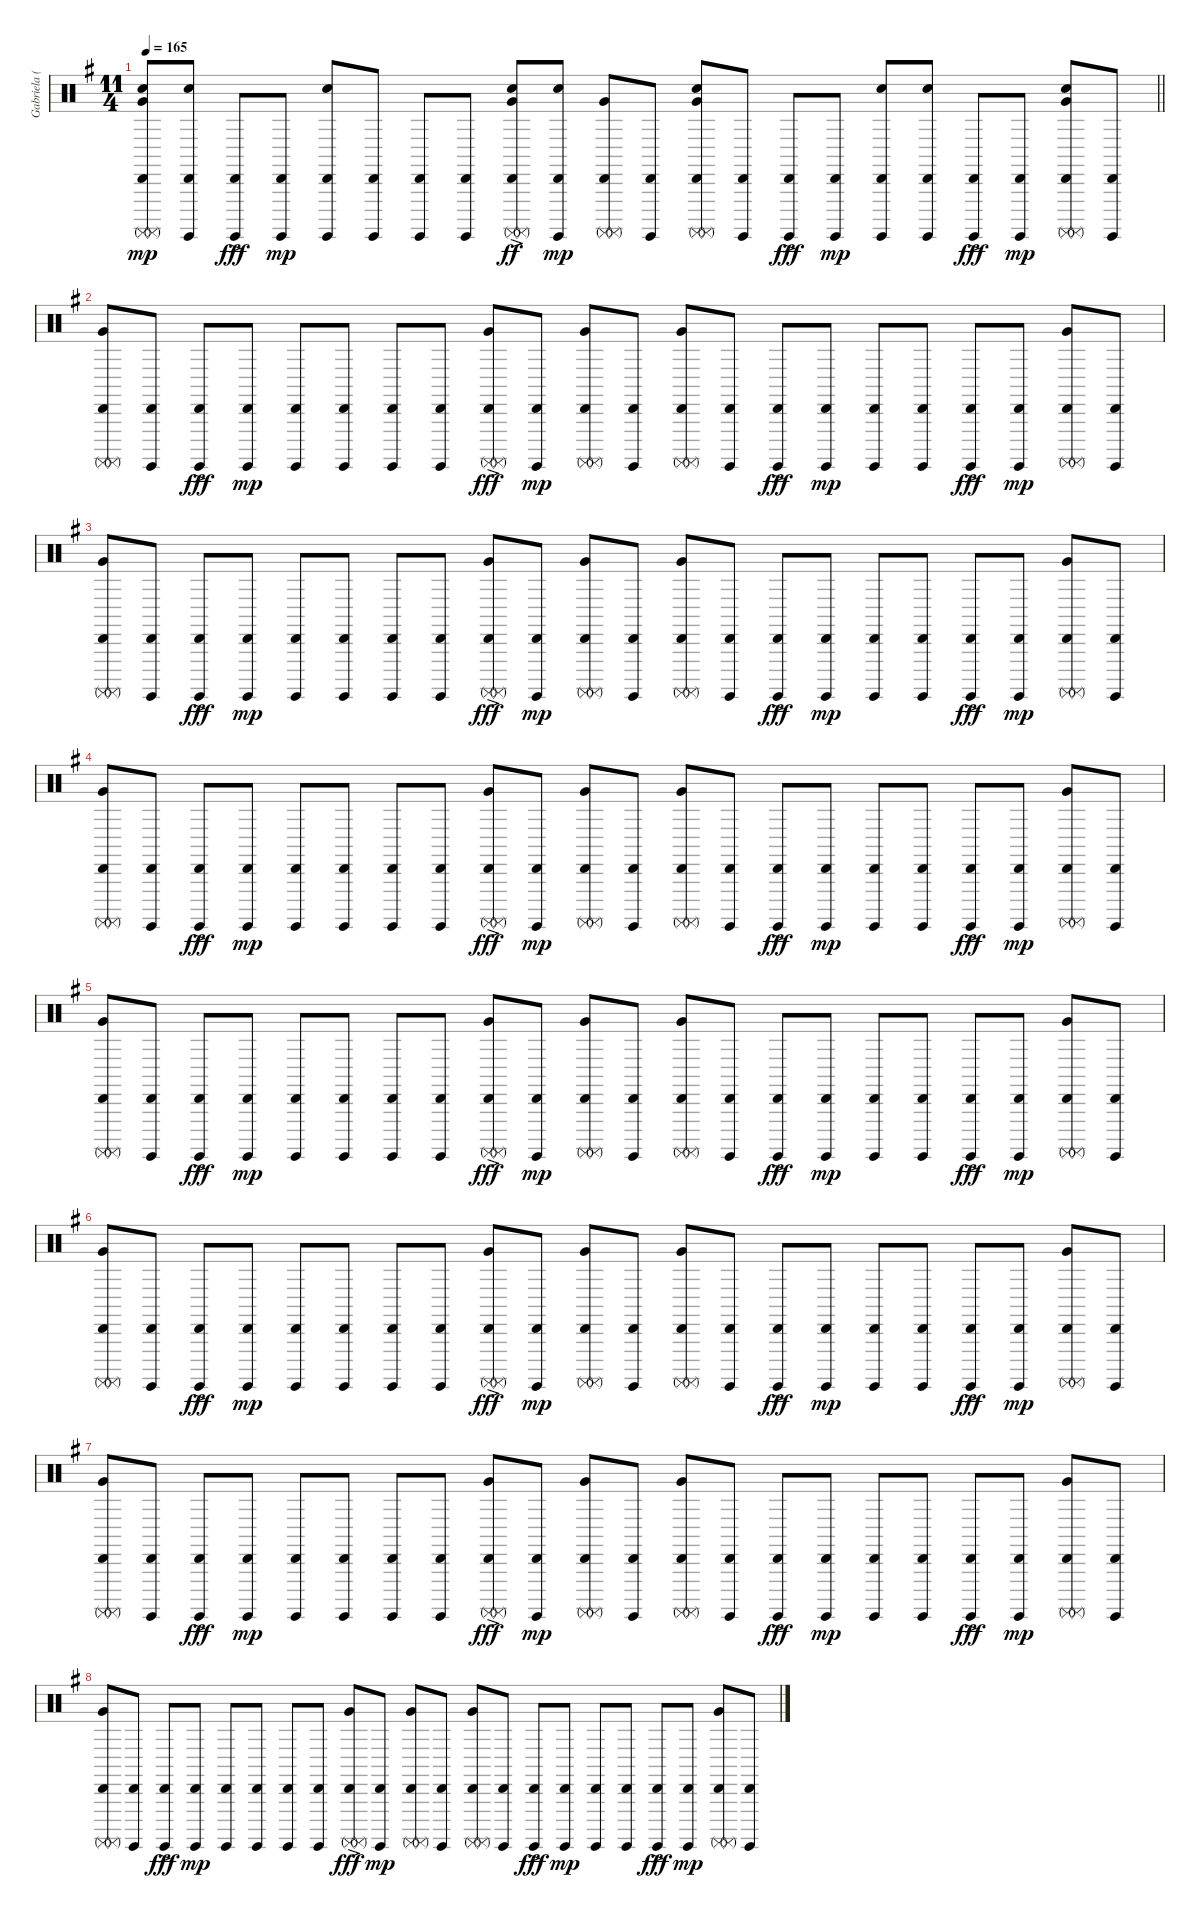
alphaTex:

\track ("Gabriela (Guitar Percussion)" "Gabriela (") {instrument percussion}
\staff {score}
\articulation defaults
\ts (11 4)
\tempo 165
\clef neutral
\barLineRight lightlight
\ks g
("Very Low Tom (hit)" "Surdo (mute)" "Surdo (mute)" "Hand Clap (hit)" "Cabasa (hit)").8{dy mp} ("Surdo (hit)" "Hand Clap (hit)" "Cabasa (hit)").8 ("Surdo (hit)" "Cabasa (hit)"{ac}).8{dy fff} ("Surdo (hit)" "Cabasa (hit)").8{dy mp} ("Surdo (hit)" "Hand Clap (hit)" "Cabasa (hit)").8 ("Surdo (hit)" "Cabasa (hit)").8 ("Surdo (hit)" "Cabasa (hit)").8 ("Surdo (hit)" "Cabasa (hit)").8 ("Very Low Tom (hit)" "Surdo (mute)" "Surdo (mute)" "Hand Clap (hit)" "Cabasa (hit)"{ac}).8{dy ff} ("Surdo (hit)" "Hand Clap (hit)" "Cabasa (hit)").8{dy mp} ("Very Low Tom (hit)" "Surdo (mute)" "Surdo (mute)" "Cabasa (hit)").8 ("Surdo (hit)" "Cabasa (hit)").8 ("Very Low Tom (hit)" "Surdo (mute)" "Surdo (mute)" "Hand Clap (hit)" "Cabasa (hit)").8 ("Surdo (hit)" "Cabasa (hit)").8 ("Surdo (hit)" "Cabasa (hit)"{ac}).8{dy fff} ("Surdo (hit)" "Cabasa (hit)").8{dy mp} ("Surdo (hit)" "Hand Clap (hit)" "Cabasa (hit)").8 ("Surdo (hit)" "Hand Clap (hit)" "Cabasa (hit)").8 ("Surdo (hit)" "Cabasa (hit)"{ac}).8{dy fff} ("Surdo (hit)" "Cabasa (hit)").8{dy mp} ("Very Low Tom (hit)" "Surdo (mute)" "Surdo (mute)" "Hand Clap (hit)" "Cabasa (hit)").8 ("Surdo (hit)" "Cabasa (hit)").8 |
("Very Low Tom (hit)" "Surdo (mute)" "Surdo (mute)" "Cabasa (hit)").8 ("Surdo (hit)" "Cabasa (hit)").8 ("Surdo (hit)" "Cabasa (hit)"{ac}).8{dy fff} ("Surdo (hit)" "Cabasa (hit)").8{dy mp} ("Surdo (hit)" "Cabasa (hit)").8 ("Surdo (hit)" "Cabasa (hit)").8 ("Surdo (hit)" "Cabasa (hit)").8 ("Surdo (hit)" "Cabasa (hit)").8 ("Very Low Tom (hit)" "Surdo (mute)" "Surdo (mute)" "Cabasa (hit)"{ac}).8{dy fff} ("Surdo (hit)" "Cabasa (hit)").8{dy mp} ("Very Low Tom (hit)" "Surdo (mute)" "Surdo (mute)" "Cabasa (hit)").8 ("Surdo (hit)" "Cabasa (hit)").8 ("Very Low Tom (hit)" "Surdo (mute)" "Surdo (mute)" "Cabasa (hit)").8 ("Surdo (hit)" "Cabasa (hit)").8 ("Surdo (hit)" "Cabasa (hit)"{ac}).8{dy fff} ("Surdo (hit)" "Cabasa (hit)").8{dy mp} ("Surdo (hit)" "Cabasa (hit)").8 ("Surdo (hit)" "Cabasa (hit)").8 ("Surdo (hit)" "Cabasa (hit)"{ac}).8{dy fff} ("Surdo (hit)" "Cabasa (hit)").8{dy mp} ("Very Low Tom (hit)" "Surdo (mute)" "Surdo (mute)" "Cabasa (hit)").8 ("Surdo (hit)" "Cabasa (hit)").8 |
("Very Low Tom (hit)" "Surdo (mute)" "Surdo (mute)" "Cabasa (hit)").8 ("Surdo (hit)" "Cabasa (hit)").8 ("Surdo (hit)" "Cabasa (hit)"{ac}).8{dy fff} ("Surdo (hit)" "Cabasa (hit)").8{dy mp} ("Surdo (hit)" "Cabasa (hit)").8 ("Surdo (hit)" "Cabasa (hit)").8 ("Surdo (hit)" "Cabasa (hit)").8 ("Surdo (hit)" "Cabasa (hit)").8 ("Very Low Tom (hit)" "Surdo (mute)" "Surdo (mute)" "Cabasa (hit)"{ac}).8{dy fff} ("Surdo (hit)" "Cabasa (hit)").8{dy mp} ("Very Low Tom (hit)" "Surdo (mute)" "Surdo (mute)" "Cabasa (hit)").8 ("Surdo (hit)" "Cabasa (hit)").8 ("Very Low Tom (hit)" "Surdo (mute)" "Surdo (mute)" "Cabasa (hit)").8 ("Surdo (hit)" "Cabasa (hit)").8 ("Surdo (hit)" "Cabasa (hit)"{ac}).8{dy fff} ("Surdo (hit)" "Cabasa (hit)").8{dy mp} ("Surdo (hit)" "Cabasa (hit)").8 ("Surdo (hit)" "Cabasa (hit)").8 ("Surdo (hit)" "Cabasa (hit)"{ac}).8{dy fff} ("Surdo (hit)" "Cabasa (hit)").8{dy mp} ("Very Low Tom (hit)" "Surdo (mute)" "Surdo (mute)" "Cabasa (hit)").8 ("Surdo (hit)" "Cabasa (hit)").8 |
("Very Low Tom (hit)" "Surdo (mute)" "Surdo (mute)" "Cabasa (hit)").8 ("Surdo (hit)" "Cabasa (hit)").8 ("Surdo (hit)" "Cabasa (hit)"{ac}).8{dy fff} ("Surdo (hit)" "Cabasa (hit)").8{dy mp} ("Surdo (hit)" "Cabasa (hit)").8 ("Surdo (hit)" "Cabasa (hit)").8 ("Surdo (hit)" "Cabasa (hit)").8 ("Surdo (hit)" "Cabasa (hit)").8 ("Very Low Tom (hit)" "Surdo (mute)" "Surdo (mute)" "Cabasa (hit)"{ac}).8{dy fff} ("Surdo (hit)" "Cabasa (hit)").8{dy mp} ("Very Low Tom (hit)" "Surdo (mute)" "Surdo (mute)" "Cabasa (hit)").8 ("Surdo (hit)" "Cabasa (hit)").8 ("Very Low Tom (hit)" "Surdo (mute)" "Surdo (mute)" "Cabasa (hit)").8 ("Surdo (hit)" "Cabasa (hit)").8 ("Surdo (hit)" "Cabasa (hit)"{ac}).8{dy fff} ("Surdo (hit)" "Cabasa (hit)").8{dy mp} ("Surdo (hit)" "Cabasa (hit)").8 ("Surdo (hit)" "Cabasa (hit)").8 ("Surdo (hit)" "Cabasa (hit)"{ac}).8{dy fff} ("Surdo (hit)" "Cabasa (hit)").8{dy mp} ("Very Low Tom (hit)" "Surdo (mute)" "Surdo (mute)" "Cabasa (hit)").8 ("Surdo (hit)" "Cabasa (hit)").8 |
("Very Low Tom (hit)" "Surdo (mute)" "Surdo (mute)" "Cabasa (hit)").8 ("Surdo (hit)" "Cabasa (hit)").8 ("Surdo (hit)" "Cabasa (hit)"{ac}).8{dy fff} ("Surdo (hit)" "Cabasa (hit)").8{dy mp} ("Surdo (hit)" "Cabasa (hit)").8 ("Surdo (hit)" "Cabasa (hit)").8 ("Surdo (hit)" "Cabasa (hit)").8 ("Surdo (hit)" "Cabasa (hit)").8 ("Very Low Tom (hit)" "Surdo (mute)" "Surdo (mute)" "Cabasa (hit)"{ac}).8{dy fff} ("Surdo (hit)" "Cabasa (hit)").8{dy mp} ("Very Low Tom (hit)" "Surdo (mute)" "Surdo (mute)" "Cabasa (hit)").8 ("Surdo (hit)" "Cabasa (hit)").8 ("Very Low Tom (hit)" "Surdo (mute)" "Surdo (mute)" "Cabasa (hit)").8 ("Surdo (hit)" "Cabasa (hit)").8 ("Surdo (hit)" "Cabasa (hit)"{ac}).8{dy fff} ("Surdo (hit)" "Cabasa (hit)").8{dy mp} ("Surdo (hit)" "Cabasa (hit)").8 ("Surdo (hit)" "Cabasa (hit)").8 ("Surdo (hit)" "Cabasa (hit)"{ac}).8{dy fff} ("Surdo (hit)" "Cabasa (hit)").8{dy mp} ("Very Low Tom (hit)" "Surdo (mute)" "Surdo (mute)" "Cabasa (hit)").8 ("Surdo (hit)" "Cabasa (hit)").8 |
("Very Low Tom (hit)" "Surdo (mute)" "Surdo (mute)" "Cabasa (hit)").8 ("Surdo (hit)" "Cabasa (hit)").8 ("Surdo (hit)" "Cabasa (hit)"{ac}).8{dy fff} ("Surdo (hit)" "Cabasa (hit)").8{dy mp} ("Surdo (hit)" "Cabasa (hit)").8 ("Surdo (hit)" "Cabasa (hit)").8 ("Surdo (hit)" "Cabasa (hit)").8 ("Surdo (hit)" "Cabasa (hit)").8 ("Very Low Tom (hit)" "Surdo (mute)" "Surdo (mute)" "Cabasa (hit)"{ac}).8{dy fff} ("Surdo (hit)" "Cabasa (hit)").8{dy mp} ("Very Low Tom (hit)" "Surdo (mute)" "Surdo (mute)" "Cabasa (hit)").8 ("Surdo (hit)" "Cabasa (hit)").8 ("Very Low Tom (hit)" "Surdo (mute)" "Surdo (mute)" "Cabasa (hit)").8 ("Surdo (hit)" "Cabasa (hit)").8 ("Surdo (hit)" "Cabasa (hit)"{ac}).8{dy fff} ("Surdo (hit)" "Cabasa (hit)").8{dy mp} ("Surdo (hit)" "Cabasa (hit)").8 ("Surdo (hit)" "Cabasa (hit)").8 ("Surdo (hit)" "Cabasa (hit)"{ac}).8{dy fff} ("Surdo (hit)" "Cabasa (hit)").8{dy mp} ("Very Low Tom (hit)" "Surdo (mute)" "Surdo (mute)" "Cabasa (hit)").8 ("Surdo (hit)" "Cabasa (hit)").8 |
("Very Low Tom (hit)" "Surdo (mute)" "Surdo (mute)" "Cabasa (hit)").8 ("Surdo (hit)" "Cabasa (hit)").8 ("Surdo (hit)" "Cabasa (hit)"{ac}).8{dy fff} ("Surdo (hit)" "Cabasa (hit)").8{dy mp} ("Surdo (hit)" "Cabasa (hit)").8 ("Surdo (hit)" "Cabasa (hit)").8 ("Surdo (hit)" "Cabasa (hit)").8 ("Surdo (hit)" "Cabasa (hit)").8 ("Very Low Tom (hit)" "Surdo (mute)" "Surdo (mute)" "Cabasa (hit)"{ac}).8{dy fff} ("Surdo (hit)" "Cabasa (hit)").8{dy mp} ("Very Low Tom (hit)" "Surdo (mute)" "Surdo (mute)" "Cabasa (hit)").8 ("Surdo (hit)" "Cabasa (hit)").8 ("Very Low Tom (hit)" "Surdo (mute)" "Surdo (mute)" "Cabasa (hit)").8 ("Surdo (hit)" "Cabasa (hit)").8 ("Surdo (hit)" "Cabasa (hit)"{ac}).8{dy fff} ("Surdo (hit)" "Cabasa (hit)").8{dy mp} ("Surdo (hit)" "Cabasa (hit)").8 ("Surdo (hit)" "Cabasa (hit)").8 ("Surdo (hit)" "Cabasa (hit)"{ac}).8{dy fff} ("Surdo (hit)" "Cabasa (hit)").8{dy mp} ("Very Low Tom (hit)" "Surdo (mute)" "Surdo (mute)" "Cabasa (hit)").8 ("Surdo (hit)" "Cabasa (hit)").8 |
("Very Low Tom (hit)" "Surdo (mute)" "Surdo (mute)" "Cabasa (hit)").8 ("Surdo (hit)" "Cabasa (hit)").8 ("Surdo (hit)" "Cabasa (hit)"{ac}).8{dy fff} ("Surdo (hit)" "Cabasa (hit)").8{dy mp} ("Surdo (hit)" "Cabasa (hit)").8 ("Surdo (hit)" "Cabasa (hit)").8 ("Surdo (hit)" "Cabasa (hit)").8 ("Surdo (hit)" "Cabasa (hit)").8 ("Very Low Tom (hit)" "Surdo (mute)" "Surdo (mute)" "Cabasa (hit)"{ac}).8{dy fff} ("Surdo (hit)" "Cabasa (hit)").8{dy mp} ("Very Low Tom (hit)" "Surdo (mute)" "Surdo (mute)" "Cabasa (hit)").8 ("Surdo (hit)" "Cabasa (hit)").8 ("Very Low Tom (hit)" "Surdo (mute)" "Surdo (mute)" "Cabasa (hit)").8 ("Surdo (hit)" "Cabasa (hit)").8 ("Surdo (hit)" "Cabasa (hit)"{ac}).8{dy fff} ("Surdo (hit)" "Cabasa (hit)").8{dy mp} ("Surdo (hit)" "Cabasa (hit)").8 ("Surdo (hit)" "Cabasa (hit)").8 ("Surdo (hit)" "Cabasa (hit)"{ac}).8{dy fff} ("Surdo (hit)" "Cabasa (hit)").8{dy mp} ("Very Low Tom (hit)" "Surdo (mute)" "Surdo (mute)" "Cabasa (hit)").8 ("Surdo (hit)" "Cabasa (hit)").8
